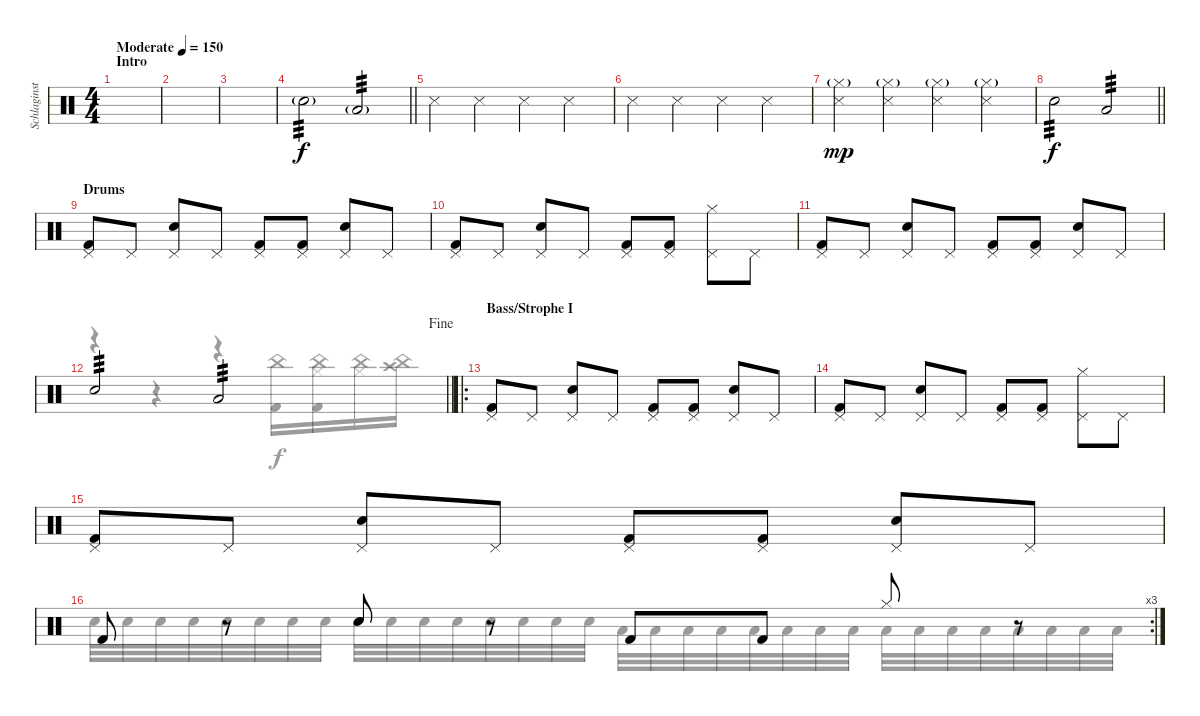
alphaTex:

\track ("Schlaginstrumente - Auswahl" "Schlaginst") {instrument percussion}
\staff {score}
\articulation defaults
\voice
\ts (4 4)
\section ("" "Intro")
\tempo (150 "Moderate")
\clef neutral
\ks c
|
|
|
\barLineRight lightlight "Electric Snare (hit)"{g}.2{tp 3} "Low Tom (hit)"{g}.2{tp 3}
|
"Snare (side stick) 3".4{dy f} "Snare (side stick) 3".4 "Snare (side stick) 3".4 "Snare (side stick) 3".4 |
"Snare (side stick) 3".4 "Snare (side stick) 3".4 "Snare (side stick) 3".4 "Snare (side stick) 3".4 |
("Hi-Hat (closed)"{g} "Snare (side stick) 3").4{dy mp} ("Hi-Hat (closed)"{g} "Snare (side stick) 3").4 ("Hi-Hat (closed)"{g} "Snare (side stick) 3").4 ("Hi-Hat (closed)"{g} "Snare (side stick) 3").4 |
\barLineRight lightlight "Electric Snare (hit)".2{tp 3 dy f} "Low Tom (hit)".2{tp 3}
|
\section ("" "Drums")
("Pedal Hi-Hat (hit)" "Kick (hit) 2").8 "Pedal Hi-Hat (hit)".8 ("Pedal Hi-Hat (hit)" "Electric Snare (hit)").8 "Pedal Hi-Hat (hit)".8 ("Pedal Hi-Hat (hit)" "Kick (hit) 2").8 ("Pedal Hi-Hat (hit)" "Kick (hit) 2").8 ("Pedal Hi-Hat (hit)" "Electric Snare (hit)").8 "Pedal Hi-Hat (hit)".8 |
("Pedal Hi-Hat (hit)" "Kick (hit) 2").8 "Pedal Hi-Hat (hit)".8 ("Pedal Hi-Hat (hit)" "Electric Snare (hit)").8 "Pedal Hi-Hat (hit)".8 ("Pedal Hi-Hat (hit)" "Kick (hit) 2").8 ("Pedal Hi-Hat (hit)" "Kick (hit) 2").8 ("Pedal Hi-Hat (hit)" "Hi-Hat (closed)").8 "Pedal Hi-Hat (hit)".8 |
("Pedal Hi-Hat (hit)" "Kick (hit) 2").8 "Pedal Hi-Hat (hit)".8 ("Pedal Hi-Hat (hit)" "Electric Snare (hit)").8 "Pedal Hi-Hat (hit)".8 ("Pedal Hi-Hat (hit)" "Kick (hit) 2").8 ("Pedal Hi-Hat (hit)" "Kick (hit) 2").8 ("Pedal Hi-Hat (hit)" "Electric Snare (hit)").8 "Pedal Hi-Hat (hit)".8 |
\jump fine
\barLineRight lightlight "Electric Snare (hit)".2{tp 3} "Low Tom (hit)".2{tp 3}
|
\ro
\section ("" "Bass/Strophe I")
("Pedal Hi-Hat (hit)" "Kick (hit) 2").8 "Pedal Hi-Hat (hit)".8 ("Pedal Hi-Hat (hit)" "Electric Snare (hit)").8 "Pedal Hi-Hat (hit)".8 ("Pedal Hi-Hat (hit)" "Kick (hit) 2").8 ("Pedal Hi-Hat (hit)" "Kick (hit) 2").8 ("Pedal Hi-Hat (hit)" "Electric Snare (hit)").8 "Pedal Hi-Hat (hit)".8 |
("Pedal Hi-Hat (hit)" "Kick (hit) 2").8 "Pedal Hi-Hat (hit)".8 ("Pedal Hi-Hat (hit)" "Electric Snare (hit)").8 "Pedal Hi-Hat (hit)".8 ("Pedal Hi-Hat (hit)" "Kick (hit) 2").8 ("Pedal Hi-Hat (hit)" "Kick (hit) 2").8 ("Pedal Hi-Hat (hit)" "Hi-Hat (closed)").8 "Pedal Hi-Hat (hit)".8 |
("Pedal Hi-Hat (hit)" "Kick (hit) 2").8 "Pedal Hi-Hat (hit)".8 ("Pedal Hi-Hat (hit)" "Electric Snare (hit)").8 "Pedal Hi-Hat (hit)".8 ("Pedal Hi-Hat (hit)" "Kick (hit) 2").8 ("Pedal Hi-Hat (hit)" "Kick (hit) 2").8 ("Pedal Hi-Hat (hit)" "Electric Snare (hit)").8 "Pedal Hi-Hat (hit)".8 |
\rc 3 "Kick (hit) 2".8
r.8 "Electric Snare (hit)".8 r.8 "Kick (hit) 2".8 "Kick (hit) 2".8 "Hi-Hat (closed)".8 r.8
\voice
\clef neutral
\ottava regular
\simile none
\ks c
|
|
|
\barLineRight lightlight
|
|
|
|
\barLineRight lightlight
|
|
|
|
\barLineRight lightlight
r.4 r.4 r.4 ("China (hit)" "Kick (hit) 2").16 ("China (hit)" "Hi-Hat (closed)" "Kick (hit) 2").16 ("China (hit)" "Hi-Hat (closed)").16 ("China (hit)" "Crash high (hit)").16 |
|
|
|
"Electric Snare (hit)".32 "Electric Snare (hit)".32 "Electric Snare (hit)".32 "Electric Snare (hit)".32 "Electric Snare (hit)".32 "Electric Snare (hit)".32 "Electric Snare (hit)".32 "Electric Snare (hit)".32 "Electric Snare (hit)".32 "Electric Snare (hit)".32 "Electric Snare (hit)".32 "Electric Snare (hit)".32 "Electric Snare (hit)".32 "Electric Snare (hit)".32 "Electric Snare (hit)".32 "Electric Snare (hit)".32 "Low Tom (hit)".32 "Low Tom (hit)".32 "Low Tom (hit)".32 "Low Tom (hit)".32 "Low Tom (hit)".32 "Low Tom (hit)".32 "Low Tom (hit)".32 "Low Tom (hit)".32 "Low Tom (hit)".32 "Low Tom (hit)".32 "Low Tom (hit)".32 "Low Tom (hit)".32 "Low Tom (hit)".32 "Low Tom (hit)".32 "Low Tom (hit)".32 "Low Tom (hit)".32
